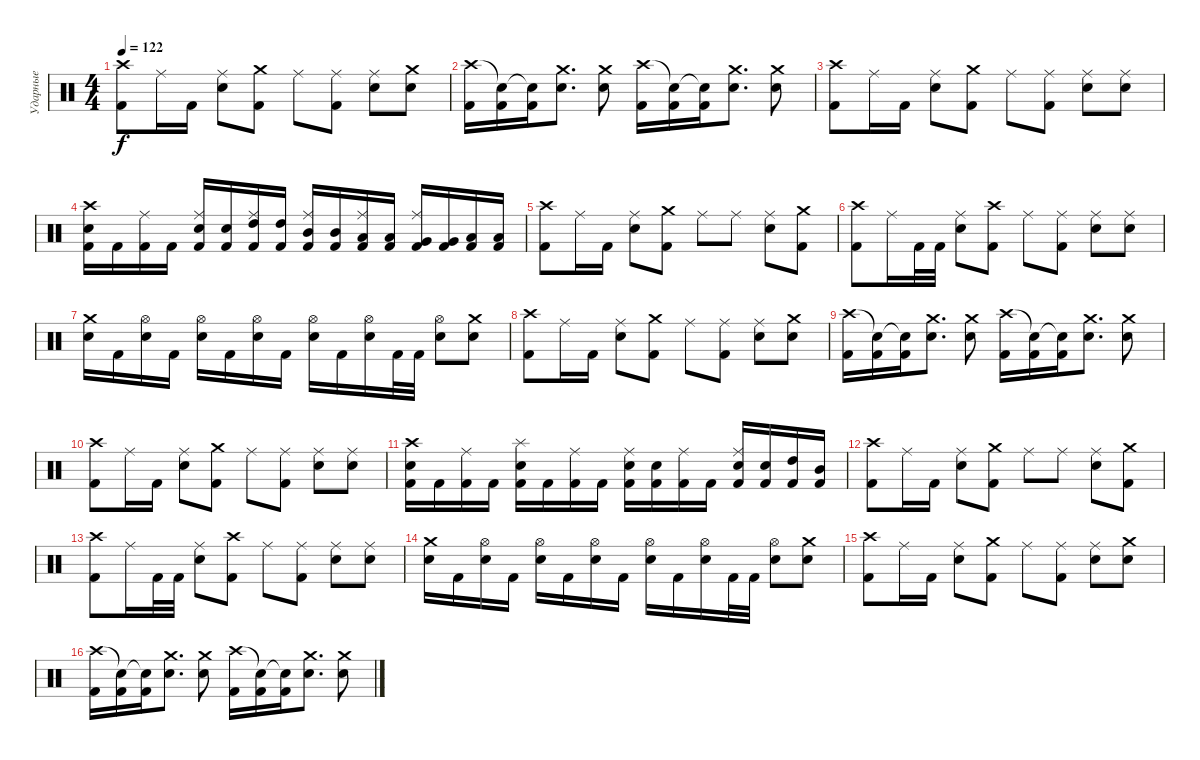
\track ("Ударные" "Ударные") {instrument percussion}
\staff {score}
\articulation defaults
\ts (4 4)
\tempo 122
\clef neutral
\ks c
("Crash high (hit)" "Kick (hit) 2").8{dy f} "Ride (middle)".16 "Kick (hit) 2".16 ("Ride (middle)" "Electric Snare (hit)").8 ("Crash medium (hit)" "Kick (hit) 2").8 "Ride (middle)".8 ("Ride (middle)" "Kick (hit) 2").8 ("Ride (middle)" "Electric Snare (hit)").8 ("Crash medium (hit)" "Electric Snare (hit)").8 |
("Crash high (hit)" "Kick (hit) 2").16 ("Snare (hit)"{t} "Kick (hit) 2").16 ("Snare (hit)"{t} "Kick (hit) 2").16 ("Crash medium (hit)" "Electric Snare (hit)").8{d} ("Crash medium (hit)" "Electric Snare (hit)").8 ("Crash high (hit)" "Kick (hit) 2").16 ("Snare (hit)"{t} "Kick (hit) 2").16 ("Snare (hit)"{t} "Kick (hit) 2").16 ("Crash medium (hit)" "Electric Snare (hit)").8{d} ("Crash medium (hit)" "Electric Snare (hit)").8 |
("Crash high (hit)" "Kick (hit) 2").8 "Ride (middle)".16 "Kick (hit) 2".16 ("Ride (middle)" "Electric Snare (hit)").8 ("Crash medium (hit)" "Kick (hit) 2").8 "Ride (middle)".8 ("Ride (middle)" "Kick (hit) 2").8 ("Ride (middle)" "Electric Snare (hit)").8 ("Ride (middle)" "Electric Snare (hit)").8 |
("Crash high (hit)" "Electric Snare (hit)" "Kick (hit) 2").16 "Kick (hit) 2".16 ("Ride (middle)" "Kick (hit) 2").16 "Kick (hit) 2".16 ("Ride (middle)" "Electric Snare (hit)" "Kick (hit) 2").16 ("Electric Snare (hit)" "Kick (hit) 2").16 ("Ride (middle)" "High Tom (hit)" "Kick (hit) 2").16 ("High Tom (hit)" "Kick (hit) 2").16 ("Ride (middle)" "Mid Tom (hit)" "Kick (hit) 2").16 ("Mid Tom (hit)" "Kick (hit) 2").16 ("Ride (middle)" "Low Tom (hit)" "Kick (hit) 2").16 ("Low Tom (hit)" "Kick (hit) 2").16 ("Ride (middle)" "Very Low Tom (hit)" "Kick (hit) 2").16 ("Very Low Tom (hit)" "Kick (hit) 2").16 ("Low Floor Tom (hit)" "Kick (hit) 2").16 ("Low Floor Tom (hit)" "Kick (hit) 2").16 |
("Crash high (hit)" "Kick (hit) 2").8 "Ride (middle)".16 "Kick (hit) 2".16 ("Ride (middle)" "Electric Snare (hit)").8 ("Crash medium (hit)" "Kick (hit) 2").8 "Ride (middle)".8 "Ride (middle)".8 ("Ride (middle)" "Electric Snare (hit)").8 ("Crash medium (hit)" "Kick (hit) 2").8 |
("Crash high (hit)" "Kick (hit) 2").8 "Ride (middle)".16 "Kick (hit) 2".32 "Kick (hit) 2".32 ("Ride (middle)" "Electric Snare (hit)").8 ("Crash high (hit)" "Kick (hit) 2").8 "Ride (middle)".8 ("Ride (middle)" "Kick (hit) 2").8 ("Ride (middle)" "Electric Snare (hit)").8 ("Ride (middle)" "Electric Snare (hit)").8 |
("Crash medium (hit)" "Electric Snare (hit)").16 "Kick (hit) 2".16 ("Hi-Hat (open)" "Electric Snare (hit)").16 "Kick (hit) 2".16 ("Hi-Hat (open)" "Electric Snare (hit)").16 "Kick (hit) 2".16 ("Hi-Hat (open)" "Electric Snare (hit)").16 "Kick (hit) 2".16 ("Hi-Hat (open)" "Electric Snare (hit)").16 "Kick (hit) 2".16 ("Hi-Hat (open)" "Electric Snare (hit)").16 "Kick (hit) 2".32 "Kick (hit) 2".32 ("Hi-Hat (open)" "Electric Snare (hit)").8 ("Crash medium (hit)" "Electric Snare (hit)").8 |
("Crash high (hit)" "Kick (hit) 2").8 "Ride (middle)".16 "Kick (hit) 2".16 ("Ride (middle)" "Electric Snare (hit)").8 ("Crash medium (hit)" "Kick (hit) 2").8 "Ride (middle)".8 ("Ride (middle)" "Kick (hit) 2").8 ("Ride (middle)" "Electric Snare (hit)").8 ("Crash medium (hit)" "Electric Snare (hit)").8 |
("Crash high (hit)" "Kick (hit) 2").16 ("Snare (hit)"{t} "Kick (hit) 2").16 ("Snare (hit)"{t} "Kick (hit) 2").16 ("Crash medium (hit)" "Electric Snare (hit)").8{d} ("Crash medium (hit)" "Electric Snare (hit)").8 ("Crash high (hit)" "Kick (hit) 2").16 ("Snare (hit)"{t} "Kick (hit) 2").16 ("Snare (hit)"{t} "Kick (hit) 2").16 ("Crash medium (hit)" "Electric Snare (hit)").8{d} ("Crash medium (hit)" "Electric Snare (hit)").8 |
("Crash high (hit)" "Kick (hit) 2").8 "Ride (middle)".16 "Kick (hit) 2".16 ("Ride (middle)" "Electric Snare (hit)").8 ("Crash medium (hit)" "Kick (hit) 2").8 "Ride (middle)".8 ("Ride (middle)" "Kick (hit) 2").8 ("Ride (middle)" "Electric Snare (hit)").8 ("Ride (middle)" "Electric Snare (hit)").8 |
("Crash high (hit)" "Electric Snare (hit)" "Kick (hit) 2").16 "Kick (hit) 2".16 ("Ride (middle)" "Kick (hit) 2").16 "Kick (hit) 2".16 ("Splash (hit)" "Electric Snare (hit)" "Kick (hit) 2").16 "Kick (hit) 2".16 ("Ride (middle)" "Kick (hit) 2").16 "Kick (hit) 2".16 ("Ride (middle)" "Electric Snare (hit)" "Kick (hit) 2").16 ("Electric Snare (hit)" "Kick (hit) 2").16 ("Ride (middle)" "Kick (hit) 2").16 "Kick (hit) 2".16 ("Ride (middle)" "Electric Snare (hit)" "Kick (hit) 2").16 ("Electric Snare (hit)" "Kick (hit) 2").16 ("High Tom (hit)" "Kick (hit) 2").16 ("Mid Tom (hit)" "Kick (hit) 2").16 |
("Crash high (hit)" "Kick (hit) 2").8 "Ride (middle)".16 "Kick (hit) 2".16 ("Ride (middle)" "Electric Snare (hit)").8 ("Crash medium (hit)" "Kick (hit) 2").8 "Ride (middle)".8 "Ride (middle)".8 ("Ride (middle)" "Electric Snare (hit)").8 ("Crash medium (hit)" "Kick (hit) 2").8 |
("Crash high (hit)" "Kick (hit) 2").8 "Ride (middle)".16 "Kick (hit) 2".32 "Kick (hit) 2".32 ("Ride (middle)" "Electric Snare (hit)").8 ("Crash high (hit)" "Kick (hit) 2").8 "Ride (middle)".8 ("Ride (middle)" "Kick (hit) 2").8 ("Ride (middle)" "Electric Snare (hit)").8 ("Ride (middle)" "Electric Snare (hit)").8 |
("Crash medium (hit)" "Electric Snare (hit)").16 "Kick (hit) 2".16 ("Hi-Hat (open)" "Electric Snare (hit)").16 "Kick (hit) 2".16 ("Hi-Hat (open)" "Electric Snare (hit)").16 "Kick (hit) 2".16 ("Hi-Hat (open)" "Electric Snare (hit)").16 "Kick (hit) 2".16 ("Hi-Hat (open)" "Electric Snare (hit)").16 "Kick (hit) 2".16 ("Hi-Hat (open)" "Electric Snare (hit)").16 "Kick (hit) 2".32 "Kick (hit) 2".32 ("Hi-Hat (open)" "Electric Snare (hit)").8 ("Crash medium (hit)" "Electric Snare (hit)").8 |
("Crash high (hit)" "Kick (hit) 2").8 "Ride (middle)".16 "Kick (hit) 2".16 ("Ride (middle)" "Electric Snare (hit)").8 ("Crash medium (hit)" "Kick (hit) 2").8 "Ride (middle)".8 ("Ride (middle)" "Kick (hit) 2").8 ("Ride (middle)" "Electric Snare (hit)").8 ("Crash medium (hit)" "Electric Snare (hit)").8 |
("Crash high (hit)" "Kick (hit) 2").16 ("Snare (hit)"{t} "Kick (hit) 2").16 ("Snare (hit)"{t} "Kick (hit) 2").16 ("Crash medium (hit)" "Electric Snare (hit)").8{d} ("Crash medium (hit)" "Electric Snare (hit)").8 ("Crash high (hit)" "Kick (hit) 2").16 ("Snare (hit)"{t} "Kick (hit) 2").16 ("Snare (hit)"{t} "Kick (hit) 2").16 ("Crash medium (hit)" "Electric Snare (hit)").8{d} ("Crash medium (hit)" "Electric Snare (hit)").8
